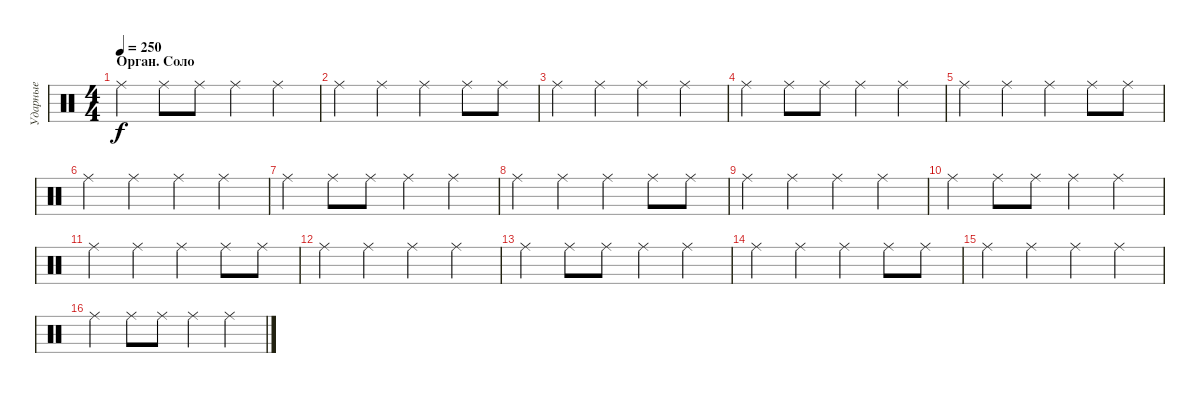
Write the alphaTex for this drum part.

\track ("Ударные" "Ударные") {instrument percussion}
\staff {score}
\articulation defaults
\ts (4 4)
\section ("" "Орган. Соло")
\tempo 250
\clef neutral
\ks c "Ride (middle)".4{dy f} "Ride (middle)".8 "Ride (middle)".8 "Ride (middle)".4 "Ride (middle)".4
|
"Ride (middle)".4 "Ride (middle)".4 "Ride (middle)".4 "Ride (middle)".8 "Ride (middle)".8 |
"Ride (middle)".4 "Ride (middle)".4 "Ride (middle)".4 "Ride (middle)".4 |
"Ride (middle)".4 "Ride (middle)".8 "Ride (middle)".8 "Ride (middle)".4 "Ride (middle)".4 |
"Ride (middle)".4 "Ride (middle)".4 "Ride (middle)".4 "Ride (middle)".8 "Ride (middle)".8 |
"Ride (middle)".4 "Ride (middle)".4 "Ride (middle)".4 "Ride (middle)".4 |
"Ride (middle)".4 "Ride (middle)".8 "Ride (middle)".8 "Ride (middle)".4 "Ride (middle)".4 |
"Ride (middle)".4 "Ride (middle)".4 "Ride (middle)".4 "Ride (middle)".8 "Ride (middle)".8 |
"Ride (middle)".4 "Ride (middle)".4 "Ride (middle)".4 "Ride (middle)".4 |
"Ride (middle)".4 "Ride (middle)".8 "Ride (middle)".8 "Ride (middle)".4 "Ride (middle)".4 |
"Ride (middle)".4 "Ride (middle)".4 "Ride (middle)".4 "Ride (middle)".8 "Ride (middle)".8 |
"Ride (middle)".4 "Ride (middle)".4 "Ride (middle)".4 "Ride (middle)".4 |
"Ride (middle)".4 "Ride (middle)".8 "Ride (middle)".8 "Ride (middle)".4 "Ride (middle)".4 |
"Ride (middle)".4 "Ride (middle)".4 "Ride (middle)".4 "Ride (middle)".8 "Ride (middle)".8 |
"Ride (middle)".4 "Ride (middle)".4 "Ride (middle)".4 "Ride (middle)".4 |
"Ride (middle)".4 "Ride (middle)".8 "Ride (middle)".8 "Ride (middle)".4 "Ride (middle)".4
